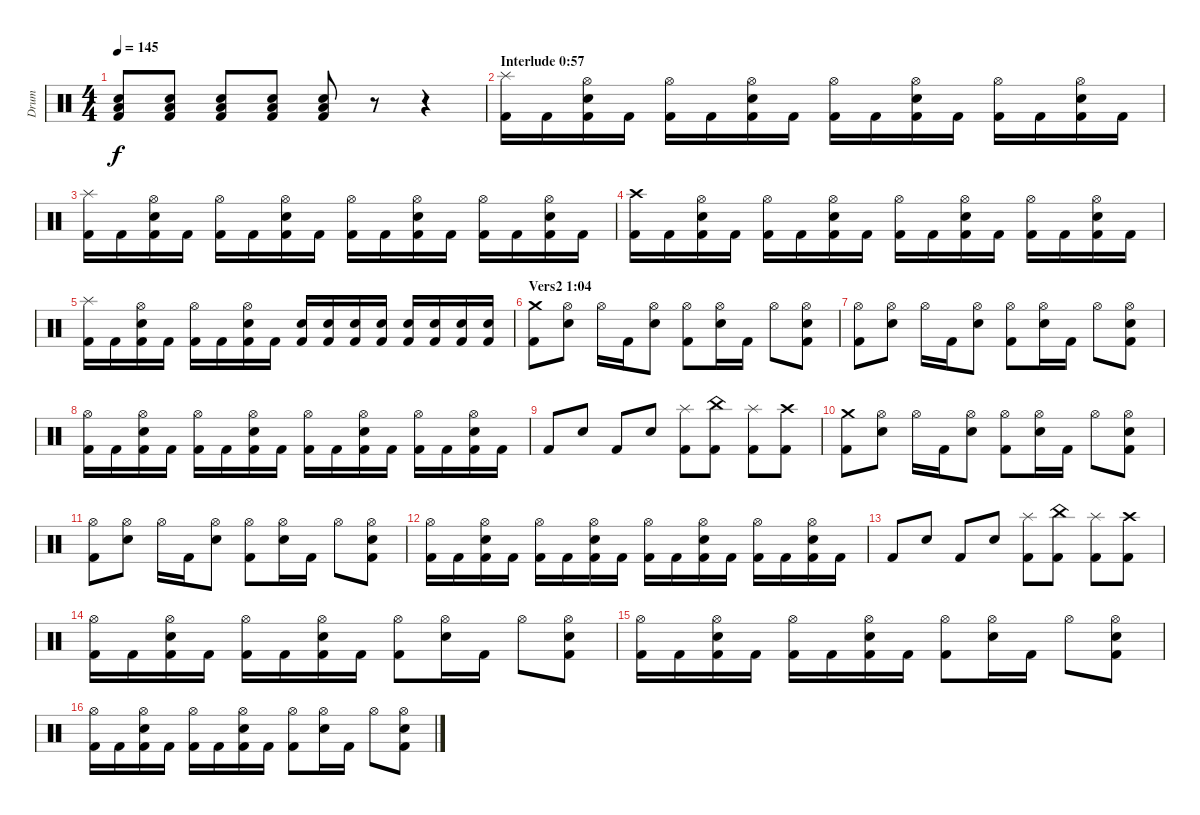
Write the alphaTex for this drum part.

\track ("Drum" "Drum") {instrument percussion}
\staff {score}
\articulation defaults
\ts (4 4)
\tempo 145
\clef neutral
\ks c
("Low Floor Tom (hit)" "Snare (hit) 2" "Kick (hit) 2").8{dy f} ("Low Floor Tom (hit)" "Snare (hit) 2" "Kick (hit) 2").8 ("Low Floor Tom (hit)" "Snare (hit) 2" "Kick (hit) 2").8 ("Low Floor Tom (hit)" "Snare (hit) 2" "Kick (hit) 2").8 ("Low Floor Tom (hit)" "Snare (hit) 2" "Kick (hit) 2").8 r.8 r.4 |
\section ("" "Interlude 0:57")
("Splash (hit)" "Kick (hit) 2").16 "Kick (hit) 2".16 ("Hi-Hat (open)" "Snare (hit) 2" "Kick (hit) 2").16 "Kick (hit) 2".16 ("Hi-Hat (open)" "Kick (hit) 2").16 "Kick (hit) 2".16 ("Hi-Hat (open)" "Snare (hit) 2" "Kick (hit) 2").16 "Kick (hit) 2".16 ("Hi-Hat (open)" "Kick (hit) 2").16 "Kick (hit) 2".16 ("Hi-Hat (open)" "Snare (hit) 2" "Kick (hit) 2").16 "Kick (hit) 2".16 ("Hi-Hat (open)" "Kick (hit) 2").16 "Kick (hit) 2".16 ("Hi-Hat (open)" "Snare (hit) 2" "Kick (hit) 2").16 "Kick (hit) 2".16 |
("Splash (hit)" "Kick (hit) 2").16 "Kick (hit) 2".16 ("Hi-Hat (open)" "Snare (hit) 2" "Kick (hit) 2").16 "Kick (hit) 2".16 ("Hi-Hat (open)" "Kick (hit) 2").16 "Kick (hit) 2".16 ("Hi-Hat (open)" "Snare (hit) 2" "Kick (hit) 2").16 "Kick (hit) 2".16 ("Hi-Hat (open)" "Kick (hit) 2").16 "Kick (hit) 2".16 ("Hi-Hat (open)" "Snare (hit) 2" "Kick (hit) 2").16 "Kick (hit) 2".16 ("Hi-Hat (open)" "Kick (hit) 2").16 "Kick (hit) 2".16 ("Hi-Hat (open)" "Snare (hit) 2" "Kick (hit) 2").16 "Kick (hit) 2".16 |
("Crash high (hit)" "Kick (hit) 2").16 "Kick (hit) 2".16 ("Hi-Hat (open)" "Snare (hit) 2" "Kick (hit) 2").16 "Kick (hit) 2".16 ("Hi-Hat (open)" "Kick (hit) 2").16 "Kick (hit) 2".16 ("Hi-Hat (open)" "Snare (hit) 2" "Kick (hit) 2").16 "Kick (hit) 2".16 ("Hi-Hat (open)" "Kick (hit) 2").16 "Kick (hit) 2".16 ("Hi-Hat (open)" "Snare (hit) 2" "Kick (hit) 2").16 "Kick (hit) 2".16 ("Hi-Hat (open)" "Kick (hit) 2").16 "Kick (hit) 2".16 ("Hi-Hat (open)" "Snare (hit) 2" "Kick (hit) 2").16 "Kick (hit) 2".16 |
("Splash (hit)" "Kick (hit) 2").16 "Kick (hit) 2".16 ("Hi-Hat (open)" "Snare (hit) 2" "Kick (hit) 2").16 "Kick (hit) 2".16 ("Hi-Hat (open)" "Kick (hit) 2").16 "Kick (hit) 2".16 ("Hi-Hat (open)" "Snare (hit) 2" "Kick (hit) 2").16 "Kick (hit) 2".16 ("Snare (hit) 2" "Kick (hit) 2").16 ("Snare (hit) 2" "Kick (hit) 2").16 ("Snare (hit) 2" "Kick (hit) 2").16 ("Snare (hit) 2" "Kick (hit) 2").16 ("Snare (hit) 2" "Kick (hit) 2").16 ("Snare (hit) 2" "Kick (hit) 2").16 ("Snare (hit) 2" "Kick (hit) 2").16 ("Snare (hit) 2" "Kick (hit) 2").16 |
\section ("" "Vers2 1:04")
("Crash medium (hit)" "Kick (hit) 2").8 ("Hi-Hat (open)" "Snare (hit) 2").8 "Hi-Hat (open)".16 "Kick (hit) 2".16 ("Hi-Hat (open)" "Snare (hit) 2").8 ("Hi-Hat (open)" "Kick (hit) 2").8 ("Hi-Hat (open)" "Snare (hit) 2").16 "Kick (hit) 2".16 "Hi-Hat (open)".8 ("Hi-Hat (open)" "Snare (hit) 2" "Kick (hit) 2").8 |
("Hi-Hat (open)" "Kick (hit) 2").8 ("Hi-Hat (open)" "Snare (hit) 2").8 "Hi-Hat (open)".16 "Kick (hit) 2".16 ("Hi-Hat (open)" "Snare (hit) 2").8 ("Hi-Hat (open)" "Kick (hit) 2").8 ("Hi-Hat (open)" "Snare (hit) 2").16 "Kick (hit) 2".16 "Hi-Hat (open)".8 ("Hi-Hat (open)" "Snare (hit) 2" "Kick (hit) 2").8 |
("Hi-Hat (open)" "Kick (hit) 2").16 "Kick (hit) 2".16 ("Hi-Hat (open)" "Snare (hit) 2" "Kick (hit) 2").16 "Kick (hit) 2".16 ("Hi-Hat (open)" "Kick (hit) 2").16 "Kick (hit) 2".16 ("Hi-Hat (open)" "Snare (hit) 2" "Kick (hit) 2").16 "Kick (hit) 2".16 ("Hi-Hat (open)" "Kick (hit) 2").16 "Kick (hit) 2".16 ("Hi-Hat (open)" "Snare (hit) 2" "Kick (hit) 2").16 "Kick (hit) 2".16 ("Hi-Hat (open)" "Kick (hit) 2").16 "Kick (hit) 2".16 ("Hi-Hat (open)" "Snare (hit) 2" "Kick (hit) 2").16 "Kick (hit) 2".16 |
"Kick (hit) 2".8 "Snare (hit) 2".8 "Kick (hit) 2".8 "Snare (hit) 2".8 ("Splash (hit)" "Kick (hit) 2").8 ("China (hit)" "Kick (hit) 2").8 ("Splash (hit)" "Kick (hit) 2").8 ("Crash high (hit)" "Kick (hit) 2").8 |
("Crash medium (hit)" "Kick (hit) 2").8 ("Hi-Hat (open)" "Snare (hit) 2").8 "Hi-Hat (open)".16 "Kick (hit) 2".16 ("Hi-Hat (open)" "Snare (hit) 2").8 ("Hi-Hat (open)" "Kick (hit) 2").8 ("Hi-Hat (open)" "Snare (hit) 2").16 "Kick (hit) 2".16 "Hi-Hat (open)".8 ("Hi-Hat (open)" "Snare (hit) 2" "Kick (hit) 2").8 |
("Hi-Hat (open)" "Kick (hit) 2").8 ("Hi-Hat (open)" "Snare (hit) 2").8 "Hi-Hat (open)".16 "Kick (hit) 2".16 ("Hi-Hat (open)" "Snare (hit) 2").8 ("Hi-Hat (open)" "Kick (hit) 2").8 ("Hi-Hat (open)" "Snare (hit) 2").16 "Kick (hit) 2".16 "Hi-Hat (open)".8 ("Hi-Hat (open)" "Snare (hit) 2" "Kick (hit) 2").8 |
("Hi-Hat (open)" "Kick (hit) 2").16 "Kick (hit) 2".16 ("Hi-Hat (open)" "Snare (hit) 2" "Kick (hit) 2").16 "Kick (hit) 2".16 ("Hi-Hat (open)" "Kick (hit) 2").16 "Kick (hit) 2".16 ("Hi-Hat (open)" "Snare (hit) 2" "Kick (hit) 2").16 "Kick (hit) 2".16 ("Hi-Hat (open)" "Kick (hit) 2").16 "Kick (hit) 2".16 ("Hi-Hat (open)" "Snare (hit) 2" "Kick (hit) 2").16 "Kick (hit) 2".16 ("Hi-Hat (open)" "Kick (hit) 2").16 "Kick (hit) 2".16 ("Hi-Hat (open)" "Snare (hit) 2" "Kick (hit) 2").16 "Kick (hit) 2".16 |
"Kick (hit) 2".8 "Snare (hit) 2".8 "Kick (hit) 2".8 "Snare (hit) 2".8 ("Splash (hit)" "Kick (hit) 2").8 ("China (hit)" "Kick (hit) 2").8 ("Splash (hit)" "Kick (hit) 2").8 ("Crash high (hit)" "Kick (hit) 2").8 |
("Hi-Hat (open)" "Kick (hit) 2").16 "Kick (hit) 2".16 ("Hi-Hat (open)" "Snare (hit) 2" "Kick (hit) 2").16 "Kick (hit) 2".16 ("Hi-Hat (open)" "Kick (hit) 2").16 "Kick (hit) 2".16 ("Hi-Hat (open)" "Snare (hit) 2" "Kick (hit) 2").16 "Kick (hit) 2".16 ("Hi-Hat (open)" "Kick (hit) 2").8 ("Hi-Hat (open)" "Snare (hit) 2").16 "Kick (hit) 2".16 "Hi-Hat (open)".8 ("Hi-Hat (open)" "Snare (hit) 2" "Kick (hit) 2").8 |
("Hi-Hat (open)" "Kick (hit) 2").16 "Kick (hit) 2".16 ("Hi-Hat (open)" "Snare (hit) 2" "Kick (hit) 2").16 "Kick (hit) 2".16 ("Hi-Hat (open)" "Kick (hit) 2").16 "Kick (hit) 2".16 ("Hi-Hat (open)" "Snare (hit) 2" "Kick (hit) 2").16 "Kick (hit) 2".16 ("Hi-Hat (open)" "Kick (hit) 2").8 ("Hi-Hat (open)" "Snare (hit) 2").16 "Kick (hit) 2".16 "Hi-Hat (open)".8 ("Hi-Hat (open)" "Snare (hit) 2" "Kick (hit) 2").8 |
("Hi-Hat (open)" "Kick (hit) 2").16 "Kick (hit) 2".16 ("Hi-Hat (open)" "Snare (hit) 2" "Kick (hit) 2").16 "Kick (hit) 2".16 ("Hi-Hat (open)" "Kick (hit) 2").16 "Kick (hit) 2".16 ("Hi-Hat (open)" "Snare (hit) 2" "Kick (hit) 2").16 "Kick (hit) 2".16 ("Hi-Hat (open)" "Kick (hit) 2").8 ("Hi-Hat (open)" "Snare (hit) 2").16 "Kick (hit) 2".16 "Hi-Hat (open)".8 ("Hi-Hat (open)" "Snare (hit) 2" "Kick (hit) 2").8
